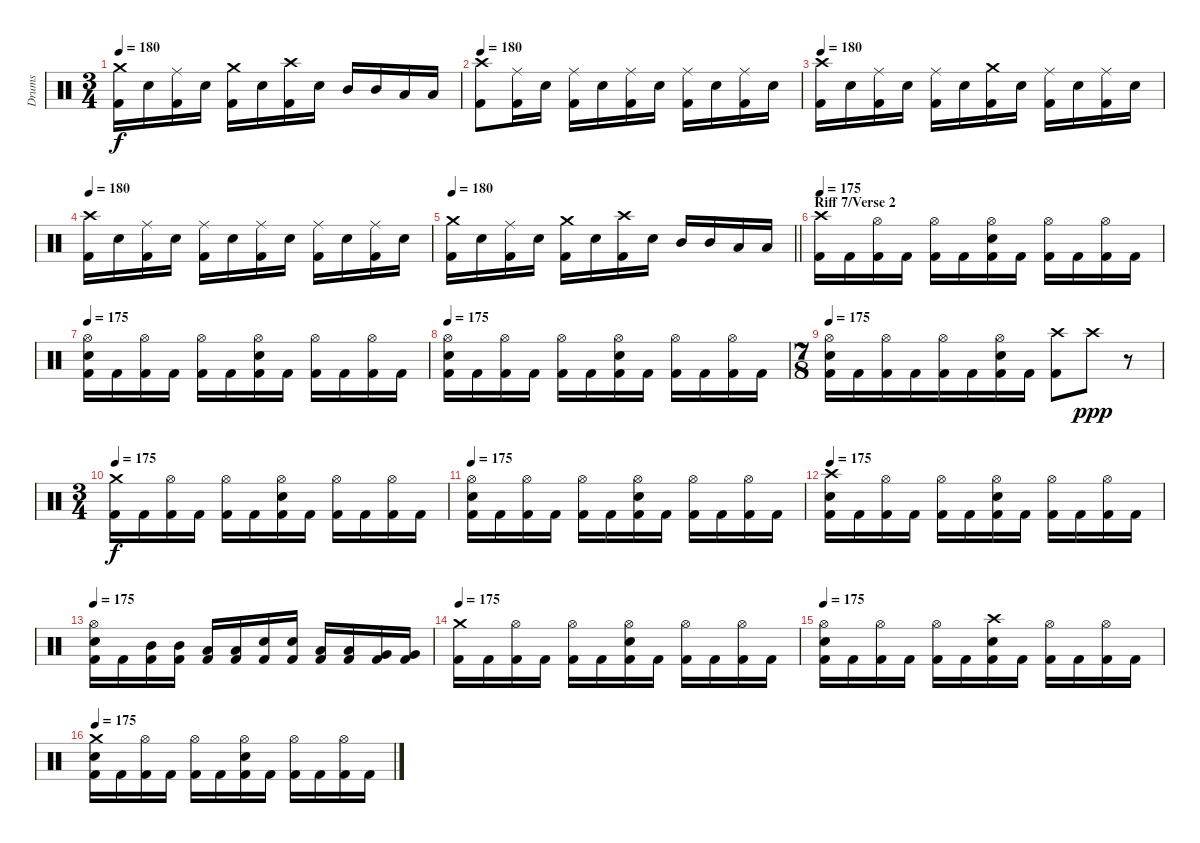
\track ("Drums" "Drums") {instrument percussion}
\staff {score}
\articulation defaults
\ts (3 4)
\tempo 180
\clef neutral
\ks c
("Crash medium (hit)" "Kick (hit) 2").16{dy f} "Electric Snare (hit)".16 ("Ride (middle)" "Kick (hit) 2").16 "Electric Snare (hit)".16 ("Crash medium (hit)" "Kick (hit) 2").16 "Electric Snare (hit)".16 ("Crash high (hit)" "Kick (hit) 2").16 "Electric Snare (hit)".16 "Mid Tom (hit)".16 "Mid Tom (hit)".16 "Low Tom (hit)".16 "Low Tom (hit)".16 |
\tempo 180
("Crash high (hit)" "Kick (hit) 2").8 ("Ride (middle)" "Kick (hit) 2").16 "Electric Snare (hit)".16 ("Ride (middle)" "Kick (hit) 2").16 "Electric Snare (hit)".16 ("Ride (middle)" "Kick (hit) 2").16 "Electric Snare (hit)".16 ("Ride (middle)" "Kick (hit) 2").16 "Electric Snare (hit)".16 ("Ride (middle)" "Kick (hit) 2").16 "Electric Snare (hit)".16 |
\tempo 180
("Crash high (hit)" "Kick (hit) 2").16 "Electric Snare (hit)".16 ("Ride (middle)" "Kick (hit) 2").16 "Electric Snare (hit)".16 ("Ride (middle)" "Kick (hit) 2").16 "Electric Snare (hit)".16 ("Crash medium (hit)" "Kick (hit) 2").16 "Electric Snare (hit)".16 ("Ride (middle)" "Kick (hit) 2").16 "Electric Snare (hit)".16 ("Ride (middle)" "Kick (hit) 2").16 "Electric Snare (hit)".16 |
\tempo 180
("Crash high (hit)" "Kick (hit) 2").16 "Electric Snare (hit)".16 ("Ride (middle)" "Kick (hit) 2").16 "Electric Snare (hit)".16 ("Ride (middle)" "Kick (hit) 2").16 "Electric Snare (hit)".16 ("Ride (middle)" "Kick (hit) 2").16 "Electric Snare (hit)".16 ("Ride (middle)" "Kick (hit) 2").16 "Electric Snare (hit)".16 ("Ride (middle)" "Kick (hit) 2").16 "Electric Snare (hit)".16 |
\tempo 180
\barLineRight lightlight
("Crash medium (hit)" "Kick (hit) 2").16 "Electric Snare (hit)".16 ("Ride (middle)" "Kick (hit) 2").16 "Electric Snare (hit)".16 ("Crash medium (hit)" "Kick (hit) 2").16 "Electric Snare (hit)".16 ("Crash high (hit)" "Kick (hit) 2").16 "Electric Snare (hit)".16 "Mid Tom (hit)".16 "Mid Tom (hit)".16 "Low Tom (hit)".16 "Low Tom (hit)".16 |
\section ("" "Riff 7/Verse 2")
\tempo 175
("Crash high (hit)" "Kick (hit) 2").16 "Kick (hit) 2".16 ("Hi-Hat (open)" "Kick (hit) 2").16 "Kick (hit) 2".16 ("Hi-Hat (open)" "Kick (hit) 2").16 "Kick (hit) 2".16 ("Hi-Hat (open)" "Electric Snare (hit)" "Kick (hit) 2").16 "Kick (hit) 2".16 ("Hi-Hat (open)" "Kick (hit) 2").16 "Kick (hit) 2".16 ("Hi-Hat (open)" "Kick (hit) 2").16 "Kick (hit) 2".16 |
\tempo 175
("Hi-Hat (open)" "Electric Snare (hit)" "Kick (hit) 2").16 "Kick (hit) 2".16 ("Hi-Hat (open)" "Kick (hit) 2").16 "Kick (hit) 2".16 ("Hi-Hat (open)" "Kick (hit) 2").16 "Kick (hit) 2".16 ("Hi-Hat (open)" "Electric Snare (hit)" "Kick (hit) 2").16 "Kick (hit) 2".16 ("Hi-Hat (open)" "Kick (hit) 2").16 "Kick (hit) 2".16 ("Hi-Hat (open)" "Kick (hit) 2").16 "Kick (hit) 2".16 |
\tempo 175
("Hi-Hat (open)" "Electric Snare (hit)" "Kick (hit) 2").16 "Kick (hit) 2".16 ("Hi-Hat (open)" "Kick (hit) 2").16 "Kick (hit) 2".16 ("Hi-Hat (open)" "Kick (hit) 2").16 "Kick (hit) 2".16 ("Hi-Hat (open)" "Electric Snare (hit)" "Kick (hit) 2").16 "Kick (hit) 2".16 ("Hi-Hat (open)" "Kick (hit) 2").16 "Kick (hit) 2".16 ("Hi-Hat (open)" "Kick (hit) 2").16 "Kick (hit) 2".16 |
\ts (7 8)
\tempo 175
("Hi-Hat (open)" "Electric Snare (hit)" "Kick (hit) 2").16 "Kick (hit) 2".16 ("Hi-Hat (open)" "Kick (hit) 2").16 "Kick (hit) 2".16 ("Hi-Hat (open)" "Kick (hit) 2").16 "Kick (hit) 2".16 ("Hi-Hat (open)" "Electric Snare (hit)" "Kick (hit) 2").16 "Kick (hit) 2".16 ("Crash high (hit)" "Kick (hit) 2").8 "Crash high (hit)".8{dy ppp} r.8 |
\ts (3 4)
\tempo 175
("Crash medium (hit)" "Kick (hit) 2").16{dy f} "Kick (hit) 2".16 ("Hi-Hat (open)" "Kick (hit) 2").16 "Kick (hit) 2".16 ("Hi-Hat (open)" "Kick (hit) 2").16 "Kick (hit) 2".16 ("Hi-Hat (open)" "Electric Snare (hit)" "Kick (hit) 2").16 "Kick (hit) 2".16 ("Hi-Hat (open)" "Kick (hit) 2").16 "Kick (hit) 2".16 ("Hi-Hat (open)" "Kick (hit) 2").16 "Kick (hit) 2".16 |
\tempo 175
("Hi-Hat (open)" "Electric Snare (hit)" "Kick (hit) 2").16 "Kick (hit) 2".16 ("Hi-Hat (open)" "Kick (hit) 2").16 "Kick (hit) 2".16 ("Hi-Hat (open)" "Kick (hit) 2").16 "Kick (hit) 2".16 ("Hi-Hat (open)" "Electric Snare (hit)" "Kick (hit) 2").16 "Kick (hit) 2".16 ("Hi-Hat (open)" "Kick (hit) 2").16 "Kick (hit) 2".16 ("Hi-Hat (open)" "Kick (hit) 2").16 "Kick (hit) 2".16 |
\tempo 175
("Crash high (hit)" "Electric Snare (hit)" "Kick (hit) 2").16 "Kick (hit) 2".16 ("Hi-Hat (open)" "Kick (hit) 2").16 "Kick (hit) 2".16 ("Hi-Hat (open)" "Kick (hit) 2").16 "Kick (hit) 2".16 ("Hi-Hat (open)" "Electric Snare (hit)" "Kick (hit) 2").16 "Kick (hit) 2".16 ("Hi-Hat (open)" "Kick (hit) 2").16 "Kick (hit) 2".16 ("Hi-Hat (open)" "Kick (hit) 2").16 "Kick (hit) 2".16 |
\tempo 175
("Hi-Hat (open)" "Electric Snare (hit)" "Kick (hit) 2").16 "Kick (hit) 2".16 ("Mid Tom (hit)" "Kick (hit) 2").16 ("Mid Tom (hit)" "Kick (hit) 2").16 ("Low Tom (hit)" "Kick (hit) 2").16 ("Low Tom (hit)" "Kick (hit) 2").16 ("Electric Snare (hit)" "Kick (hit) 2").16 ("Electric Snare (hit)" "Kick (hit) 2").16 ("Low Tom (hit)" "Kick (hit) 2").16 ("Low Tom (hit)" "Kick (hit) 2").16 ("Very Low Tom (hit)" "Kick (hit) 2").16 ("Very Low Tom (hit)" "Kick (hit) 2").16 |
\tempo 175
("Crash medium (hit)" "Kick (hit) 2").16 "Kick (hit) 2".16 ("Hi-Hat (open)" "Kick (hit) 2").16 "Kick (hit) 2".16 ("Hi-Hat (open)" "Kick (hit) 2").16 "Kick (hit) 2".16 ("Hi-Hat (open)" "Electric Snare (hit)" "Kick (hit) 2").16 "Kick (hit) 2".16 ("Hi-Hat (open)" "Kick (hit) 2").16 "Kick (hit) 2".16 ("Hi-Hat (open)" "Kick (hit) 2").16 "Kick (hit) 2".16 |
\tempo 175
("Hi-Hat (open)" "Electric Snare (hit)" "Kick (hit) 2").16 "Kick (hit) 2".16 ("Hi-Hat (open)" "Kick (hit) 2").16 "Kick (hit) 2".16 ("Hi-Hat (open)" "Kick (hit) 2").16 "Kick (hit) 2".16 ("Crash high (hit)" "Electric Snare (hit)" "Kick (hit) 2").16 "Kick (hit) 2".16 ("Hi-Hat (open)" "Kick (hit) 2").16 "Kick (hit) 2".16 ("Hi-Hat (open)" "Kick (hit) 2").16 "Kick (hit) 2".16 |
\tempo 175
("Crash medium (hit)" "Electric Snare (hit)" "Kick (hit) 2").16 "Kick (hit) 2".16 ("Hi-Hat (open)" "Kick (hit) 2").16 "Kick (hit) 2".16 ("Hi-Hat (open)" "Kick (hit) 2").16 "Kick (hit) 2".16 ("Hi-Hat (open)" "Electric Snare (hit)" "Kick (hit) 2").16 "Kick (hit) 2".16 ("Hi-Hat (open)" "Kick (hit) 2").16 "Kick (hit) 2".16 ("Hi-Hat (open)" "Kick (hit) 2").16 "Kick (hit) 2".16
